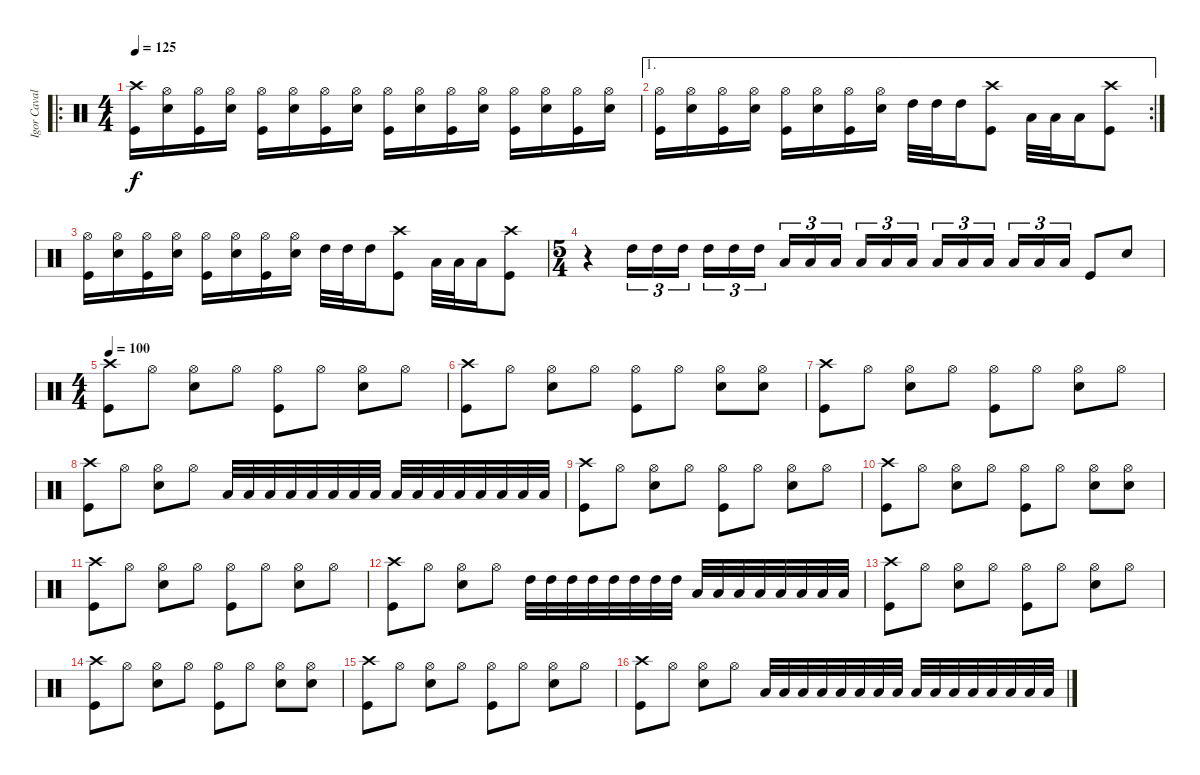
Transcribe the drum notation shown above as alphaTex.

\track ("Igor Cavalera" "Igor Caval") {instrument percussion}
\staff {score}
\articulation defaults
\ro
\ts (4 4)
\tempo 125
\clef neutral
\ks c
("Crash high (hit)" "Kick (hit)").16{dy f} ("Hi-Hat (open)" "Snare (hit) 2").16 ("Hi-Hat (open)" "Kick (hit)").16 ("Hi-Hat (open)" "Snare (hit) 2").16 ("Hi-Hat (open)" "Kick (hit)").16 ("Hi-Hat (open)" "Snare (hit) 2").16 ("Hi-Hat (open)" "Kick (hit)").16 ("Hi-Hat (open)" "Snare (hit) 2").16 ("Hi-Hat (open)" "Kick (hit)").16 ("Hi-Hat (open)" "Snare (hit) 2").16 ("Hi-Hat (open)" "Kick (hit)").16 ("Hi-Hat (open)" "Snare (hit) 2").16 ("Hi-Hat (open)" "Kick (hit)").16 ("Hi-Hat (open)" "Snare (hit) 2").16 ("Hi-Hat (open)" "Kick (hit)").16 ("Hi-Hat (open)" "Snare (hit) 2").16 |
\ae 1
\rc 2
("Hi-Hat (open)" "Kick (hit)").16 ("Hi-Hat (open)" "Snare (hit) 2").16 ("Hi-Hat (open)" "Kick (hit)").16 ("Hi-Hat (open)" "Snare (hit) 2").16 ("Hi-Hat (open)" "Kick (hit)").16 ("Hi-Hat (open)" "Snare (hit) 2").16 ("Hi-Hat (open)" "Kick (hit)").16 ("Hi-Hat (open)" "Snare (hit) 2").16 "High Tom (hit)".32 "High Tom (hit)".32 "High Tom (hit)".16 ("Crash high (hit)" "Kick (hit)").8 "Low Tom (hit)".32 "Low Tom (hit)".32 "Low Tom (hit)".16 ("Crash high (hit)" "Kick (hit)").8 |
("Hi-Hat (open)" "Kick (hit)").16 ("Hi-Hat (open)" "Snare (hit) 2").16 ("Hi-Hat (open)" "Kick (hit)").16 ("Hi-Hat (open)" "Snare (hit) 2").16 ("Hi-Hat (open)" "Kick (hit)").16 ("Hi-Hat (open)" "Snare (hit) 2").16 ("Hi-Hat (open)" "Kick (hit)").16 ("Hi-Hat (open)" "Snare (hit) 2").16 "High Tom (hit)".32 "High Tom (hit)".32 "High Tom (hit)".16 ("Crash high (hit)" "Kick (hit)").8 "Low Tom (hit)".32 "Low Tom (hit)".32 "Low Tom (hit)".16 ("Crash high (hit)" "Kick (hit)").8 |
\ts (5 4)
r.4 "High Tom (hit)".16{tu (3 2)} "High Tom (hit)".16{tu (3 2)} "High Tom (hit)".16{tu (3 2) beam splitsecondary} "High Tom (hit)".16{tu (3 2)} "High Tom (hit)".16{tu (3 2)} "High Tom (hit)".16{tu (3 2)} "Low Tom (hit)".16{tu (3 2)} "Low Tom (hit)".16{tu (3 2)} "Low Tom (hit)".16{tu (3 2) beam splitsecondary} "Low Tom (hit)".16{tu (3 2)} "Low Tom (hit)".16{tu (3 2)} "Low Tom (hit)".16{tu (3 2)} "Low Floor Tom (hit)".16{tu (3 2)} "Low Floor Tom (hit)".16{tu (3 2)} "Low Floor Tom (hit)".16{tu (3 2) beam splitsecondary} "Low Floor Tom (hit)".16{tu (3 2)} "Low Floor Tom (hit)".16{tu (3 2)} "Low Floor Tom (hit)".16{tu (3 2)} "Kick (hit)".8 "Snare (hit) 2".8 |
\ts (4 4)
\tempo 100
("Crash high (hit)" "Kick (hit)").8 "Hi-Hat (open)".8 ("Hi-Hat (open)" "Snare (hit) 2").8 "Hi-Hat (open)".8 ("Hi-Hat (open)" "Kick (hit)").8 "Hi-Hat (open)".8 ("Hi-Hat (open)" "Snare (hit) 2").8 "Hi-Hat (open)".8 |
("Crash high (hit)" "Kick (hit)").8 "Hi-Hat (open)".8 ("Hi-Hat (open)" "Snare (hit) 2").8 "Hi-Hat (open)".8 ("Hi-Hat (open)" "Kick (hit)").8 "Hi-Hat (open)".8 ("Hi-Hat (open)" "Snare (hit) 2").8 ("Hi-Hat (open)" "Snare (hit) 2").8 |
("Crash high (hit)" "Kick (hit)").8 "Hi-Hat (open)".8 ("Hi-Hat (open)" "Snare (hit) 2").8 "Hi-Hat (open)".8 ("Hi-Hat (open)" "Kick (hit)").8 "Hi-Hat (open)".8 ("Hi-Hat (open)" "Snare (hit) 2").8 "Hi-Hat (open)".8 |
("Crash high (hit)" "Kick (hit)").8 "Hi-Hat (open)".8 ("Hi-Hat (open)" "Snare (hit) 2").8 "Hi-Hat (open)".8 "Low Tom (hit)".32 "Low Tom (hit)".32 "Low Tom (hit)".32 "Low Tom (hit)".32 "Low Tom (hit)".32 "Low Tom (hit)".32 "Low Tom (hit)".32 "Low Tom (hit)".32 "Low Floor Tom (hit)".32 "Low Floor Tom (hit)".32 "Low Floor Tom (hit)".32 "Low Floor Tom (hit)".32 "Low Floor Tom (hit)".32 "Low Floor Tom (hit)".32 "Low Floor Tom (hit)".32 "Low Floor Tom (hit)".32 |
("Crash high (hit)" "Kick (hit)").8 "Hi-Hat (open)".8 ("Hi-Hat (open)" "Snare (hit) 2").8 "Hi-Hat (open)".8 ("Hi-Hat (open)" "Kick (hit)").8 "Hi-Hat (open)".8 ("Hi-Hat (open)" "Snare (hit) 2").8 "Hi-Hat (open)".8 |
("Crash high (hit)" "Kick (hit)").8 "Hi-Hat (open)".8 ("Hi-Hat (open)" "Snare (hit) 2").8 "Hi-Hat (open)".8 ("Hi-Hat (open)" "Kick (hit)").8 "Hi-Hat (open)".8 ("Hi-Hat (open)" "Snare (hit) 2").8 ("Hi-Hat (open)" "Snare (hit) 2").8 |
("Crash high (hit)" "Kick (hit)").8 "Hi-Hat (open)".8 ("Hi-Hat (open)" "Snare (hit) 2").8 "Hi-Hat (open)".8 ("Hi-Hat (open)" "Kick (hit)").8 "Hi-Hat (open)".8 ("Hi-Hat (open)" "Snare (hit) 2").8 "Hi-Hat (open)".8 |
("Crash high (hit)" "Kick (hit)").8 "Hi-Hat (open)".8 ("Hi-Hat (open)" "Snare (hit) 2").8 "Hi-Hat (open)".8 "High Tom (hit)".32 "High Tom (hit)".32 "High Tom (hit)".32 "High Tom (hit)".32 "High Tom (hit)".32 "High Tom (hit)".32 "High Tom (hit)".32 "High Tom (hit)".32 "Low Tom (hit)".32 "Low Tom (hit)".32 "Low Tom (hit)".32 "Low Tom (hit)".32 "Low Tom (hit)".32 "Low Tom (hit)".32 "Low Tom (hit)".32 "Low Tom (hit)".32 |
("Crash high (hit)" "Kick (hit)").8 "Hi-Hat (open)".8 ("Hi-Hat (open)" "Snare (hit) 2").8 "Hi-Hat (open)".8 ("Hi-Hat (open)" "Kick (hit)").8 "Hi-Hat (open)".8 ("Hi-Hat (open)" "Snare (hit) 2").8 "Hi-Hat (open)".8 |
("Crash high (hit)" "Kick (hit)").8 "Hi-Hat (open)".8 ("Hi-Hat (open)" "Snare (hit) 2").8 "Hi-Hat (open)".8 ("Hi-Hat (open)" "Kick (hit)").8 "Hi-Hat (open)".8 ("Hi-Hat (open)" "Snare (hit) 2").8 ("Hi-Hat (open)" "Snare (hit) 2").8 |
("Crash high (hit)" "Kick (hit)").8 "Hi-Hat (open)".8 ("Hi-Hat (open)" "Snare (hit) 2").8 "Hi-Hat (open)".8 ("Hi-Hat (open)" "Kick (hit)").8 "Hi-Hat (open)".8 ("Hi-Hat (open)" "Snare (hit) 2").8 "Hi-Hat (open)".8 |
("Crash high (hit)" "Kick (hit)").8 "Hi-Hat (open)".8 ("Hi-Hat (open)" "Snare (hit) 2").8 "Hi-Hat (open)".8 "Low Tom (hit)".32 "Low Tom (hit)".32 "Low Tom (hit)".32 "Low Tom (hit)".32 "Low Tom (hit)".32 "Low Tom (hit)".32 "Low Tom (hit)".32 "Low Tom (hit)".32 "Low Floor Tom (hit)".32 "Low Floor Tom (hit)".32 "Low Floor Tom (hit)".32 "Low Floor Tom (hit)".32 "Low Floor Tom (hit)".32 "Low Floor Tom (hit)".32 "Low Floor Tom (hit)".32 "Low Floor Tom (hit)".32
